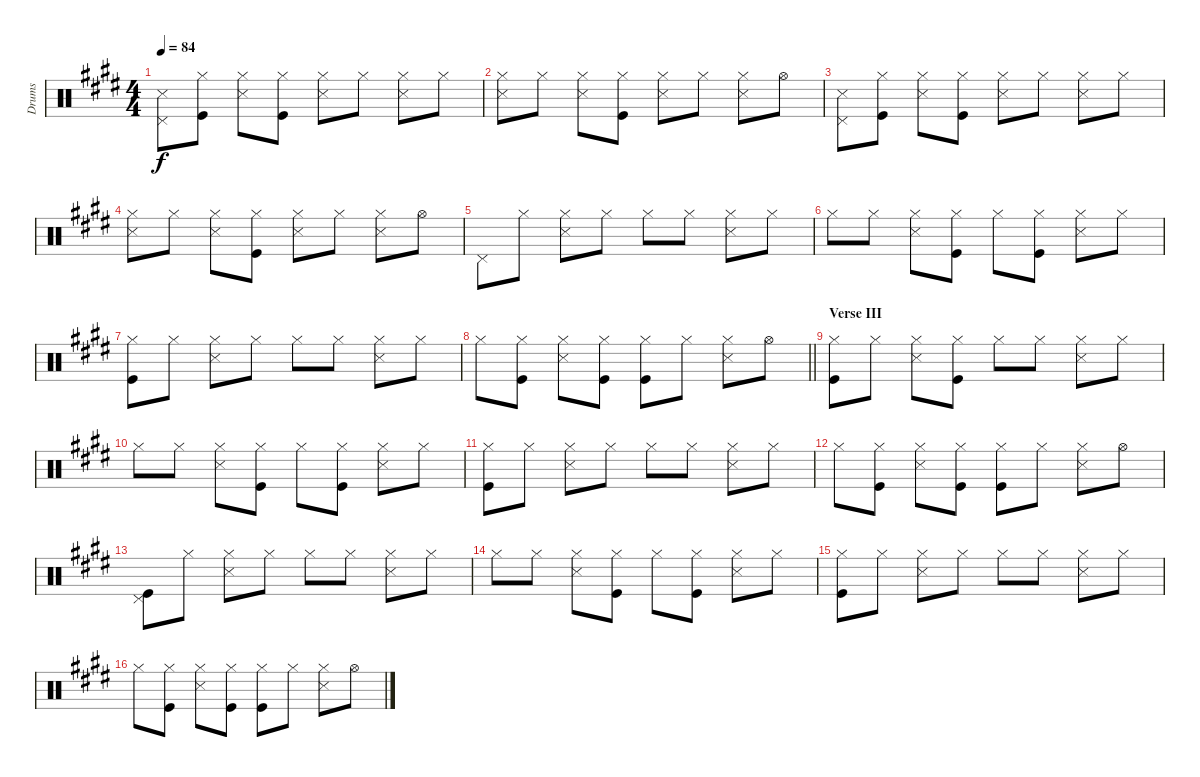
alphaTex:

\track ("Drums" "Drums") {instrument percussion}
\staff {score}
\articulation defaults
\ts (4 4)
\tempo 84
\clef neutral
\ks e
("Pedal Hi-Hat (hit)" "Snare (side stick) 3").8{dy f} ("Hi-Hat (closed)" "Kick (hit)").8 ("Hi-Hat (closed)" "Snare (side stick) 3").8 ("Hi-Hat (closed)" "Kick (hit)").8 ("Hi-Hat (closed)" "Snare (side stick) 3").8 "Hi-Hat (closed)".8 ("Hi-Hat (closed)" "Snare (side stick) 3").8 "Hi-Hat (closed)".8 |
("Hi-Hat (closed)" "Snare (side stick) 3").8 "Hi-Hat (closed)".8 ("Hi-Hat (closed)" "Snare (side stick) 3").8 ("Hi-Hat (closed)" "Kick (hit)").8 ("Hi-Hat (closed)" "Snare (side stick) 3").8 "Hi-Hat (closed)".8 ("Hi-Hat (closed)" "Snare (side stick) 3").8 "Hi-Hat (open)".8 |
("Pedal Hi-Hat (hit)" "Snare (side stick) 3").8 ("Hi-Hat (closed)" "Kick (hit)").8 ("Hi-Hat (closed)" "Snare (side stick) 3").8 ("Hi-Hat (closed)" "Kick (hit)").8 ("Hi-Hat (closed)" "Snare (side stick) 3").8 "Hi-Hat (closed)".8 ("Hi-Hat (closed)" "Snare (side stick) 3").8 "Hi-Hat (closed)".8 |
("Hi-Hat (closed)" "Snare (side stick) 3").8 "Hi-Hat (closed)".8 ("Hi-Hat (closed)" "Snare (side stick) 3").8 ("Hi-Hat (closed)" "Kick (hit)").8 ("Hi-Hat (closed)" "Snare (side stick) 3").8 "Hi-Hat (closed)".8 ("Hi-Hat (closed)" "Snare (side stick) 3").8 "Hi-Hat (open)".8 |
"Pedal Hi-Hat (hit)".8 "Hi-Hat (closed)".8 ("Hi-Hat (closed)" "Snare (side stick) 3").8 "Hi-Hat (closed)".8 "Hi-Hat (closed)".8 "Hi-Hat (closed)".8 ("Hi-Hat (closed)" "Snare (side stick) 3").8 "Hi-Hat (closed)".8 |
\ks c#minor "Hi-Hat (closed)".8 "Hi-Hat (closed)".8
("Hi-Hat (closed)" "Snare (side stick) 3").8 ("Hi-Hat (closed)" "Kick (hit)").8 "Hi-Hat (closed)".8 ("Hi-Hat (closed)" "Kick (hit)").8 ("Hi-Hat (closed)" "Snare (side stick) 3").8 "Hi-Hat (closed)".8 |
("Hi-Hat (closed)" "Kick (hit)").8 "Hi-Hat (closed)".8 ("Hi-Hat (closed)" "Snare (side stick) 3").8 "Hi-Hat (closed)".8 "Hi-Hat (closed)".8 "Hi-Hat (closed)".8 ("Hi-Hat (closed)" "Snare (side stick) 3").8 "Hi-Hat (closed)".8 |
\barLineRight lightlight
\ks e "Hi-Hat (closed)".8
("Hi-Hat (closed)" "Kick (hit)").8 ("Hi-Hat (closed)" "Snare (side stick) 3").8 ("Hi-Hat (closed)" "Kick (hit)").8 ("Hi-Hat (closed)" "Kick (hit)").8 "Hi-Hat (closed)".8 ("Hi-Hat (closed)" "Snare (side stick) 3").8 "Hi-Hat (open)".8 |
\section ("" "Verse III")
\ks c#minor
("Hi-Hat (closed)" "Kick (hit)").8 "Hi-Hat (closed)".8 ("Hi-Hat (closed)" "Snare (side stick) 3").8 ("Hi-Hat (closed)" "Kick (hit)").8 "Hi-Hat (closed)".8 "Hi-Hat (closed)".8 ("Hi-Hat (closed)" "Snare (side stick) 3").8 "Hi-Hat (closed)".8 |
"Hi-Hat (closed)".8 "Hi-Hat (closed)".8 ("Hi-Hat (closed)" "Snare (side stick) 3").8 ("Hi-Hat (closed)" "Kick (hit)").8 "Hi-Hat (closed)".8 ("Hi-Hat (closed)" "Kick (hit)").8 ("Hi-Hat (closed)" "Snare (side stick) 3").8 "Hi-Hat (closed)".8 |
\ks e
("Hi-Hat (closed)" "Kick (hit)").8 "Hi-Hat (closed)".8 ("Hi-Hat (closed)" "Snare (side stick) 3").8 "Hi-Hat (closed)".8 "Hi-Hat (closed)".8 "Hi-Hat (closed)".8 ("Hi-Hat (closed)" "Snare (side stick) 3").8 "Hi-Hat (closed)".8 |
\ks c#minor "Hi-Hat (closed)".8
("Hi-Hat (closed)" "Kick (hit)").8 ("Hi-Hat (closed)" "Snare (side stick) 3").8 ("Hi-Hat (closed)" "Kick (hit)").8 ("Hi-Hat (closed)" "Kick (hit)").8 "Hi-Hat (closed)".8 ("Hi-Hat (closed)" "Snare (side stick) 3").8 "Hi-Hat (open)".8 |
("Pedal Hi-Hat (hit)" "Kick (hit)").8 "Hi-Hat (closed)".8 ("Hi-Hat (closed)" "Snare (side stick) 3").8 "Hi-Hat (closed)".8 "Hi-Hat (closed)".8 "Hi-Hat (closed)".8 ("Hi-Hat (closed)" "Snare (side stick) 3").8 "Hi-Hat (closed)".8 |
\ks e "Hi-Hat (closed)".8 "Hi-Hat (closed)".8
("Hi-Hat (closed)" "Snare (side stick) 3").8 ("Hi-Hat (closed)" "Kick (hit)").8 "Hi-Hat (closed)".8 ("Hi-Hat (closed)" "Kick (hit)").8 ("Hi-Hat (closed)" "Snare (side stick) 3").8 "Hi-Hat (closed)".8 |
\ks c#minor
("Hi-Hat (closed)" "Kick (hit)").8 "Hi-Hat (closed)".8 ("Hi-Hat (closed)" "Snare (side stick) 3").8 "Hi-Hat (closed)".8 "Hi-Hat (closed)".8 "Hi-Hat (closed)".8 ("Hi-Hat (closed)" "Snare (side stick) 3").8 "Hi-Hat (closed)".8 |
"Hi-Hat (closed)".8 ("Hi-Hat (closed)" "Kick (hit)").8 ("Hi-Hat (closed)" "Snare (side stick) 3").8 ("Hi-Hat (closed)" "Kick (hit)").8 ("Hi-Hat (closed)" "Kick (hit)").8 "Hi-Hat (closed)".8 ("Hi-Hat (closed)" "Snare (side stick) 3").8 "Hi-Hat (open)".8
